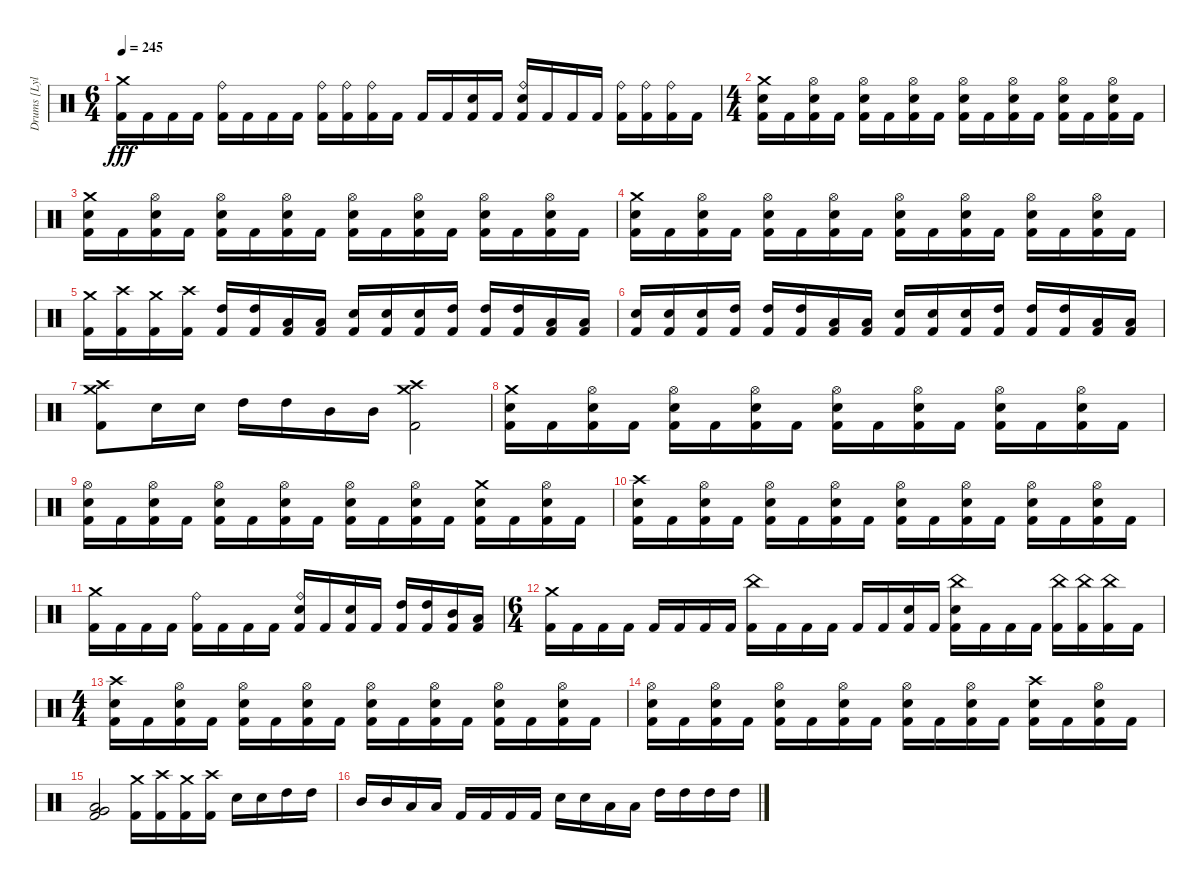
\track ("Drums [Lyle Cooper]" "Drums [Lyl") {instrument percussion}
\staff {score}
\articulation defaults
\ts (6 4)
\tempo 245
\clef neutral
\ks c
("Crash medium (hit)" "Kick (hit) 2").16{dy fff} "Kick (hit) 2".16 "Kick (hit) 2".16 "Kick (hit) 2".16 ("Ride (bell)" "Kick (hit) 2").16 "Kick (hit) 2".16 "Kick (hit) 2".16 "Kick (hit) 2".16 ("Ride (bell)" "Kick (hit) 2").16 ("Ride (bell)" "Kick (hit) 2").16 ("Ride (bell)" "Kick (hit) 2").16 "Kick (hit) 2".16 "Kick (hit) 2".16 "Kick (hit) 2".16 ("Electric Snare (hit)" "Kick (hit) 2").16 "Kick (hit) 2".16 ("Ride (bell)" "Electric Snare (hit)" "Kick (hit) 2").16 "Kick (hit) 2".16 "Kick (hit) 2".16 "Kick (hit) 2".16 ("Ride (bell)" "Kick (hit) 2").16 ("Ride (bell)" "Kick (hit) 2").16 ("Ride (bell)" "Kick (hit) 2").16 "Kick (hit) 2".16 |
\ts (4 4)
("Crash medium (hit)" "Electric Snare (hit)" "Kick (hit) 2").16 "Kick (hit) 2".16 ("Hi-Hat (open)" "Electric Snare (hit)" "Kick (hit) 2").16 "Kick (hit) 2".16 ("Hi-Hat (open)" "Electric Snare (hit)" "Kick (hit) 2").16 "Kick (hit) 2".16 ("Hi-Hat (open)" "Electric Snare (hit)" "Kick (hit) 2").16 "Kick (hit) 2".16 ("Hi-Hat (open)" "Electric Snare (hit)" "Kick (hit) 2").16 "Kick (hit) 2".16 ("Hi-Hat (open)" "Electric Snare (hit)" "Kick (hit) 2").16 "Kick (hit) 2".16 ("Hi-Hat (open)" "Electric Snare (hit)" "Kick (hit) 2").16 "Kick (hit) 2".16 ("Hi-Hat (open)" "Electric Snare (hit)" "Kick (hit) 2").16 "Kick (hit) 2".16 |
("Crash medium (hit)" "Electric Snare (hit)" "Kick (hit) 2").16 "Kick (hit) 2".16 ("Hi-Hat (open)" "Electric Snare (hit)" "Kick (hit) 2").16 "Kick (hit) 2".16 ("Hi-Hat (open)" "Electric Snare (hit)" "Kick (hit) 2").16 "Kick (hit) 2".16 ("Hi-Hat (open)" "Electric Snare (hit)" "Kick (hit) 2").16 "Kick (hit) 2".16 ("Hi-Hat (open)" "Electric Snare (hit)" "Kick (hit) 2").16 "Kick (hit) 2".16 ("Hi-Hat (open)" "Electric Snare (hit)" "Kick (hit) 2").16 "Kick (hit) 2".16 ("Hi-Hat (open)" "Electric Snare (hit)" "Kick (hit) 2").16 "Kick (hit) 2".16 ("Hi-Hat (open)" "Electric Snare (hit)" "Kick (hit) 2").16 "Kick (hit) 2".16 |
("Crash medium (hit)" "Electric Snare (hit)" "Kick (hit) 2").16 "Kick (hit) 2".16 ("Hi-Hat (open)" "Electric Snare (hit)" "Kick (hit) 2").16 "Kick (hit) 2".16 ("Hi-Hat (open)" "Electric Snare (hit)" "Kick (hit) 2").16 "Kick (hit) 2".16 ("Hi-Hat (open)" "Electric Snare (hit)" "Kick (hit) 2").16 "Kick (hit) 2".16 ("Hi-Hat (open)" "Electric Snare (hit)" "Kick (hit) 2").16 "Kick (hit) 2".16 ("Hi-Hat (open)" "Electric Snare (hit)" "Kick (hit) 2").16 "Kick (hit) 2".16 ("Hi-Hat (open)" "Electric Snare (hit)" "Kick (hit) 2").16 "Kick (hit) 2".16 ("Hi-Hat (open)" "Electric Snare (hit)" "Kick (hit) 2").16 "Kick (hit) 2".16 |
("Crash medium (hit)" "Kick (hit) 2").16 ("Crash high (hit)" "Kick (hit) 2").16 ("Crash medium (hit)" "Kick (hit) 2").16 ("Crash high (hit)" "Kick (hit) 2").16 ("High Tom (hit)" "Kick (hit) 2").16 ("High Tom (hit)" "Kick (hit) 2").16 ("Low Tom (hit)" "Kick (hit) 2").16 ("Low Tom (hit)" "Kick (hit) 2").16 ("Electric Snare (hit)" "Kick (hit) 2").16 ("Electric Snare (hit)" "Kick (hit) 2").16 ("Electric Snare (hit)" "Kick (hit) 2").16 ("High Tom (hit)" "Kick (hit) 2").16 ("High Tom (hit)" "Kick (hit) 2").16 ("High Tom (hit)" "Kick (hit) 2").16 ("Low Tom (hit)" "Kick (hit) 2").16 ("Low Tom (hit)" "Kick (hit) 2").16 |
("Electric Snare (hit)" "Kick (hit) 2").16 ("Electric Snare (hit)" "Kick (hit) 2").16 ("Electric Snare (hit)" "Kick (hit) 2").16 ("High Tom (hit)" "Kick (hit) 2").16 ("High Tom (hit)" "Kick (hit) 2").16 ("High Tom (hit)" "Kick (hit) 2").16 ("Low Tom (hit)" "Kick (hit) 2").16 ("Low Tom (hit)" "Kick (hit) 2").16 ("Electric Snare (hit)" "Kick (hit) 2").16 ("Electric Snare (hit)" "Kick (hit) 2").16 ("Electric Snare (hit)" "Kick (hit) 2").16 ("High Tom (hit)" "Kick (hit) 2").16 ("High Tom (hit)" "Kick (hit) 2").16 ("High Tom (hit)" "Kick (hit) 2").16 ("Low Tom (hit)" "Kick (hit) 2").16 ("Low Tom (hit)" "Kick (hit) 2").16 |
("Crash medium (hit)" "Crash high (hit)" "Kick (hit) 2").8 "Electric Snare (hit)".16 "Electric Snare (hit)".16 "High Tom (hit)".16 "High Tom (hit)".16 "Mid Tom (hit)".16 "Mid Tom (hit)".16 ("Crash medium (hit)" "Crash high (hit)" "Kick (hit) 2").2 |
("Crash medium (hit)" "Electric Snare (hit)" "Kick (hit) 2").16 "Kick (hit) 2".16 ("Hi-Hat (open)" "Electric Snare (hit)" "Kick (hit) 2").16 "Kick (hit) 2".16 ("Hi-Hat (open)" "Electric Snare (hit)" "Kick (hit) 2").16 "Kick (hit) 2".16 ("Hi-Hat (open)" "Electric Snare (hit)" "Kick (hit) 2").16 "Kick (hit) 2".16 ("Hi-Hat (open)" "Electric Snare (hit)" "Kick (hit) 2").16 "Kick (hit) 2".16 ("Hi-Hat (open)" "Electric Snare (hit)" "Kick (hit) 2").16 "Kick (hit) 2".16 ("Hi-Hat (open)" "Electric Snare (hit)" "Kick (hit) 2").16 "Kick (hit) 2".16 ("Hi-Hat (open)" "Electric Snare (hit)" "Kick (hit) 2").16 "Kick (hit) 2".16 |
("Hi-Hat (open)" "Electric Snare (hit)" "Kick (hit) 2").16 "Kick (hit) 2".16 ("Hi-Hat (open)" "Electric Snare (hit)" "Kick (hit) 2").16 "Kick (hit) 2".16 ("Hi-Hat (open)" "Electric Snare (hit)" "Kick (hit) 2").16 "Kick (hit) 2".16 ("Hi-Hat (open)" "Electric Snare (hit)" "Kick (hit) 2").16 "Kick (hit) 2".16 ("Hi-Hat (open)" "Electric Snare (hit)" "Kick (hit) 2").16 "Kick (hit) 2".16 ("Hi-Hat (open)" "Electric Snare (hit)" "Kick (hit) 2").16 "Kick (hit) 2".16 ("Crash medium (hit)" "Electric Snare (hit)" "Kick (hit) 2").16 "Kick (hit) 2".16 ("Hi-Hat (open)" "Electric Snare (hit)" "Kick (hit) 2").16 "Kick (hit) 2".16 |
("Crash high (hit)" "Electric Snare (hit)" "Kick (hit) 2").16 "Kick (hit) 2".16 ("Hi-Hat (open)" "Electric Snare (hit)" "Kick (hit) 2").16 "Kick (hit) 2".16 ("Hi-Hat (open)" "Electric Snare (hit)" "Kick (hit) 2").16 "Kick (hit) 2".16 ("Hi-Hat (open)" "Electric Snare (hit)" "Kick (hit) 2").16 "Kick (hit) 2".16 ("Hi-Hat (open)" "Electric Snare (hit)" "Kick (hit) 2").16 "Kick (hit) 2".16 ("Hi-Hat (open)" "Electric Snare (hit)" "Kick (hit) 2").16 "Kick (hit) 2".16 ("Hi-Hat (open)" "Electric Snare (hit)" "Kick (hit) 2").16 "Kick (hit) 2".16 ("Hi-Hat (open)" "Electric Snare (hit)" "Kick (hit) 2").16 "Kick (hit) 2".16 |
("Crash medium (hit)" "Kick (hit) 2").16 "Kick (hit) 2".16 "Kick (hit) 2".16 "Kick (hit) 2".16 ("Ride (bell)" "Kick (hit) 2").16 "Kick (hit) 2".16 "Kick (hit) 2".16 "Kick (hit) 2".16 ("Ride (bell)" "Electric Snare (hit)" "Kick (hit) 2").16 "Kick (hit) 2".16 ("Electric Snare (hit)" "Kick (hit) 2").16 "Kick (hit) 2".16 ("High Tom (hit)" "Kick (hit) 2").16 ("High Tom (hit)" "Kick (hit) 2").16 ("Mid Tom (hit)" "Kick (hit) 2").16 ("Low Tom (hit)" "Kick (hit) 2").16 |
\ts (6 4)
("Crash medium (hit)" "Kick (hit) 2").16 "Kick (hit) 2".16 "Kick (hit) 2".16 "Kick (hit) 2".16 "Kick (hit) 2".16 "Kick (hit) 2".16 "Kick (hit) 2".16 "Kick (hit) 2".16 ("China (hit)" "Kick (hit) 2").16 "Kick (hit) 2".16 "Kick (hit) 2".16 "Kick (hit) 2".16 "Kick (hit) 2".16 "Kick (hit) 2".16 ("Electric Snare (hit)" "Kick (hit) 2").16 "Kick (hit) 2".16 ("China (hit)" "Electric Snare (hit)" "Kick (hit) 2").16 "Kick (hit) 2".16 "Kick (hit) 2".16 "Kick (hit) 2".16 ("China (hit)" "Kick (hit) 2").16 ("China (hit)" "Kick (hit) 2").16 ("China (hit)" "Kick (hit) 2").16 "Kick (hit) 2".16 |
\ts (4 4)
("Crash high (hit)" "Electric Snare (hit)" "Kick (hit) 2").16 "Kick (hit) 2".16 ("Hi-Hat (open)" "Electric Snare (hit)" "Kick (hit) 2").16 "Kick (hit) 2".16 ("Hi-Hat (open)" "Electric Snare (hit)" "Kick (hit) 2").16 "Kick (hit) 2".16 ("Hi-Hat (open)" "Electric Snare (hit)" "Kick (hit) 2").16 "Kick (hit) 2".16 ("Hi-Hat (open)" "Electric Snare (hit)" "Kick (hit) 2").16 "Kick (hit) 2".16 ("Hi-Hat (open)" "Electric Snare (hit)" "Kick (hit) 2").16 "Kick (hit) 2".16 ("Hi-Hat (open)" "Electric Snare (hit)" "Kick (hit) 2").16 "Kick (hit) 2".16 ("Hi-Hat (open)" "Electric Snare (hit)" "Kick (hit) 2").16 "Kick (hit) 2".16 |
("Hi-Hat (open)" "Electric Snare (hit)" "Kick (hit) 2").16 "Kick (hit) 2".16 ("Hi-Hat (open)" "Electric Snare (hit)" "Kick (hit) 2").16 "Kick (hit) 2".16 ("Hi-Hat (open)" "Electric Snare (hit)" "Kick (hit) 2").16 "Kick (hit) 2".16 ("Hi-Hat (open)" "Electric Snare (hit)" "Kick (hit) 2").16 "Kick (hit) 2".16 ("Hi-Hat (open)" "Electric Snare (hit)" "Kick (hit) 2").16 "Kick (hit) 2".16 ("Hi-Hat (open)" "Electric Snare (hit)" "Kick (hit) 2").16 "Kick (hit) 2".16 ("Crash high (hit)" "Electric Snare (hit)" "Kick (hit) 2").16 "Kick (hit) 2".16 ("Hi-Hat (open)" "Electric Snare (hit)" "Kick (hit) 2").16 "Kick (hit) 2".16 |
("Low Tom (hit)" "Very Low Tom (hit)" "Kick (hit) 2").2 ("Crash medium (hit)" "Kick (hit) 2").16 ("Crash high (hit)" "Kick (hit) 2").16 ("Crash medium (hit)" "Kick (hit) 2").16 ("Crash high (hit)" "Kick (hit) 2").16 "Electric Snare (hit)".16 "Electric Snare (hit)".16 "High Tom (hit)".16 "High Tom (hit)".16 |
"Mid Tom (hit)".16 "Mid Tom (hit)".16 "Low Tom (hit)".16 "Low Tom (hit)".16 "Kick (hit) 2".16 "Kick (hit) 2".16 "Kick (hit) 2".16 "Kick (hit) 2".16 "Electric Snare (hit)".16 "Electric Snare (hit)".16 "Low Tom (hit)".16 "Low Tom (hit)".16 "High Tom (hit)".16 "High Tom (hit)".16 "High Tom (hit)".16 "High Tom (hit)".16
